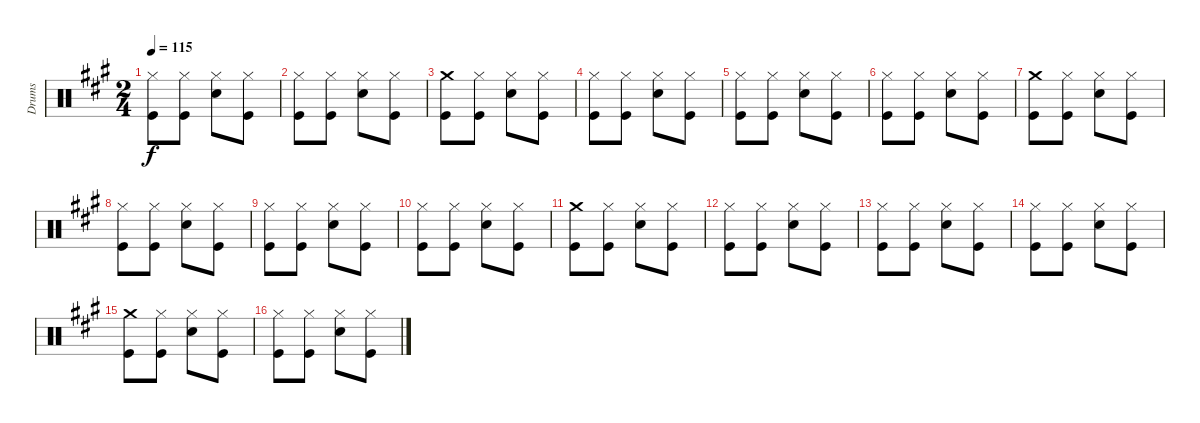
\track ("Drums" "Drums") {instrument percussion}
\staff {score}
\articulation defaults
\ts (2 4)
\tempo 115
\clef neutral
\ks f#minor
("Hi-Hat (closed)" "Kick (hit)").8{dy f} ("Hi-Hat (closed)" "Kick (hit)").8 ("Hi-Hat (closed)" "Electric Snare (hit)").8 ("Hi-Hat (closed)" "Kick (hit)").8 |
("Hi-Hat (closed)" "Kick (hit)").8 ("Hi-Hat (closed)" "Kick (hit)").8 ("Hi-Hat (closed)" "Electric Snare (hit)").8 ("Hi-Hat (closed)" "Kick (hit)").8 |
("Crash medium (hit)" "Kick (hit)").8 ("Hi-Hat (closed)" "Kick (hit)").8 ("Hi-Hat (closed)" "Electric Snare (hit)").8 ("Hi-Hat (closed)" "Kick (hit)").8 |
("Hi-Hat (closed)" "Kick (hit)").8 ("Hi-Hat (closed)" "Kick (hit)").8 ("Hi-Hat (closed)" "Electric Snare (hit)").8 ("Hi-Hat (closed)" "Kick (hit)").8 |
("Hi-Hat (closed)" "Kick (hit)").8 ("Hi-Hat (closed)" "Kick (hit)").8 ("Hi-Hat (closed)" "Electric Snare (hit)").8 ("Hi-Hat (closed)" "Kick (hit)").8 |
("Hi-Hat (closed)" "Kick (hit)").8 ("Hi-Hat (closed)" "Kick (hit)").8 ("Hi-Hat (closed)" "Electric Snare (hit)").8 ("Hi-Hat (closed)" "Kick (hit)").8 |
("Crash medium (hit)" "Kick (hit)").8 ("Hi-Hat (closed)" "Kick (hit)").8 ("Hi-Hat (closed)" "Electric Snare (hit)").8 ("Hi-Hat (closed)" "Kick (hit)").8 |
("Hi-Hat (closed)" "Kick (hit)").8 ("Hi-Hat (closed)" "Kick (hit)").8 ("Hi-Hat (closed)" "Electric Snare (hit)").8 ("Hi-Hat (closed)" "Kick (hit)").8 |
("Hi-Hat (closed)" "Kick (hit)").8 ("Hi-Hat (closed)" "Kick (hit)").8 ("Hi-Hat (closed)" "Electric Snare (hit)").8 ("Hi-Hat (closed)" "Kick (hit)").8 |
("Hi-Hat (closed)" "Kick (hit)").8 ("Hi-Hat (closed)" "Kick (hit)").8 ("Hi-Hat (closed)" "Electric Snare (hit)").8 ("Hi-Hat (closed)" "Kick (hit)").8 |
("Crash medium (hit)" "Kick (hit)").8 ("Hi-Hat (closed)" "Kick (hit)").8 ("Hi-Hat (closed)" "Electric Snare (hit)").8 ("Hi-Hat (closed)" "Kick (hit)").8 |
("Hi-Hat (closed)" "Kick (hit)").8 ("Hi-Hat (closed)" "Kick (hit)").8 ("Hi-Hat (closed)" "Electric Snare (hit)").8 ("Hi-Hat (closed)" "Kick (hit)").8 |
("Hi-Hat (closed)" "Kick (hit)").8 ("Hi-Hat (closed)" "Kick (hit)").8 ("Hi-Hat (closed)" "Electric Snare (hit)").8 ("Hi-Hat (closed)" "Kick (hit)").8 |
("Hi-Hat (closed)" "Kick (hit)").8 ("Hi-Hat (closed)" "Kick (hit)").8 ("Hi-Hat (closed)" "Electric Snare (hit)").8 ("Hi-Hat (closed)" "Kick (hit)").8 |
("Crash medium (hit)" "Kick (hit)").8 ("Hi-Hat (closed)" "Kick (hit)").8 ("Hi-Hat (closed)" "Electric Snare (hit)").8 ("Hi-Hat (closed)" "Kick (hit)").8 |
("Hi-Hat (closed)" "Kick (hit)").8 ("Hi-Hat (closed)" "Kick (hit)").8 ("Hi-Hat (closed)" "Electric Snare (hit)").8 ("Hi-Hat (closed)" "Kick (hit)").8
